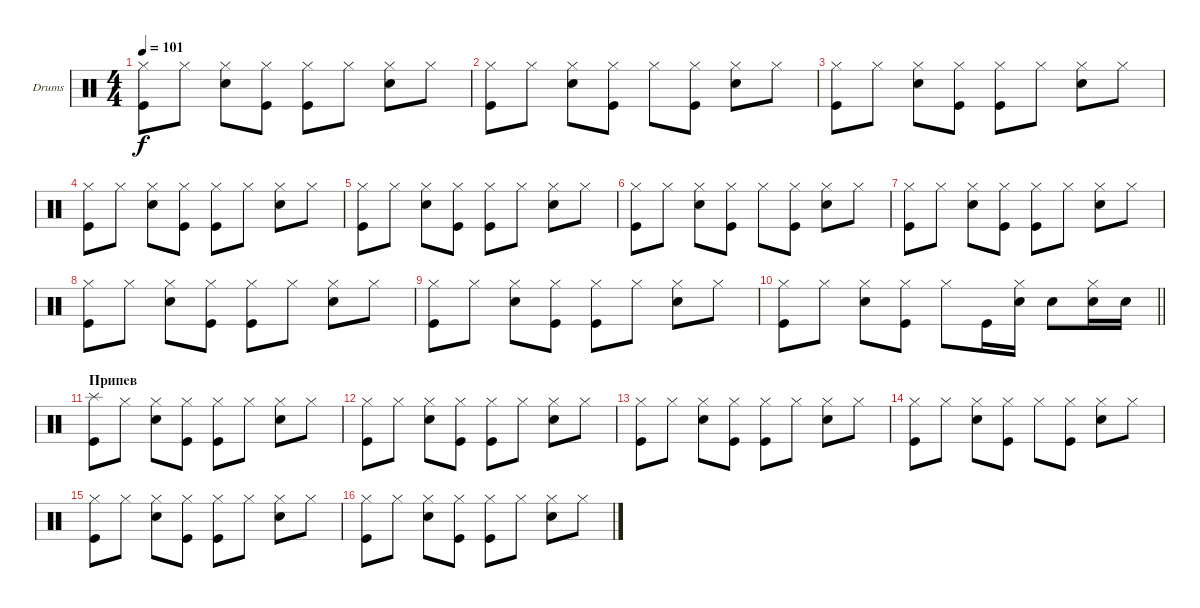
\bracketExtendMode groupsimilarinstruments
\firstSystemTrackNameOrientation horizontal
\otherSystemsTrackNameOrientation horizontal
\track ("Г.Гурьянов (ударные)" "Drums") {instrument percussion}
\staff {score}
\articulation defaults
\ts (4 4)
\tempo 101
\clef neutral
\ks c
("Hi-Hat (closed)" "Kick (hit)").8{dy f} "Hi-Hat (closed)".8 ("Hi-Hat (closed)" "Snare (hit) 2").8 ("Hi-Hat (closed)" "Kick (hit)").8 ("Hi-Hat (closed)" "Kick (hit)").8 "Hi-Hat (closed)".8 ("Hi-Hat (closed)" "Snare (hit) 2").8 "Hi-Hat (closed)".8 |
("Hi-Hat (closed)" "Kick (hit)").8 "Hi-Hat (closed)".8 ("Hi-Hat (closed)" "Snare (hit) 2").8 ("Hi-Hat (closed)" "Kick (hit)").8 "Hi-Hat (closed)".8 ("Hi-Hat (closed)" "Kick (hit)").8 ("Hi-Hat (closed)" "Snare (hit) 2").8 "Hi-Hat (closed)".8 |
("Hi-Hat (closed)" "Kick (hit)").8 "Hi-Hat (closed)".8 ("Hi-Hat (closed)" "Snare (hit) 2").8 ("Hi-Hat (closed)" "Kick (hit)").8 ("Hi-Hat (closed)" "Kick (hit)").8 "Hi-Hat (closed)".8 ("Hi-Hat (closed)" "Snare (hit) 2").8 "Hi-Hat (closed)".8 |
("Hi-Hat (closed)" "Kick (hit)").8 "Hi-Hat (closed)".8 ("Hi-Hat (closed)" "Snare (hit) 2").8 ("Hi-Hat (closed)" "Kick (hit)").8 ("Hi-Hat (closed)" "Kick (hit)").8 "Hi-Hat (closed)".8 ("Hi-Hat (closed)" "Snare (hit) 2").8 "Hi-Hat (closed)".8 |
("Hi-Hat (closed)" "Kick (hit)").8 "Hi-Hat (closed)".8 ("Hi-Hat (closed)" "Snare (hit) 2").8 ("Hi-Hat (closed)" "Kick (hit)").8 ("Hi-Hat (closed)" "Kick (hit)").8 "Hi-Hat (closed)".8 ("Hi-Hat (closed)" "Snare (hit) 2").8 "Hi-Hat (closed)".8 |
("Hi-Hat (closed)" "Kick (hit)").8 "Hi-Hat (closed)".8 ("Hi-Hat (closed)" "Snare (hit) 2").8 ("Hi-Hat (closed)" "Kick (hit)").8 "Hi-Hat (closed)".8 ("Hi-Hat (closed)" "Kick (hit)").8 ("Hi-Hat (closed)" "Snare (hit) 2").8 "Hi-Hat (closed)".8 |
("Hi-Hat (closed)" "Kick (hit)").8 "Hi-Hat (closed)".8 ("Hi-Hat (closed)" "Snare (hit) 2").8 ("Hi-Hat (closed)" "Kick (hit)").8 ("Hi-Hat (closed)" "Kick (hit)").8 "Hi-Hat (closed)".8 ("Hi-Hat (closed)" "Snare (hit) 2").8 "Hi-Hat (closed)".8 |
("Hi-Hat (closed)" "Kick (hit)").8 "Hi-Hat (closed)".8 ("Hi-Hat (closed)" "Snare (hit) 2").8 ("Hi-Hat (closed)" "Kick (hit)").8 ("Hi-Hat (closed)" "Kick (hit)").8 "Hi-Hat (closed)".8 ("Hi-Hat (closed)" "Snare (hit) 2").8 "Hi-Hat (closed)".8 |
("Hi-Hat (closed)" "Kick (hit)").8 "Hi-Hat (closed)".8 ("Hi-Hat (closed)" "Snare (hit) 2").8 ("Hi-Hat (closed)" "Kick (hit)").8 ("Hi-Hat (closed)" "Kick (hit)").8 "Hi-Hat (closed)".8 ("Hi-Hat (closed)" "Snare (hit) 2").8 "Hi-Hat (closed)".8 |
\barLineRight lightlight
("Hi-Hat (closed)" "Kick (hit)").8 "Hi-Hat (closed)".8 ("Hi-Hat (closed)" "Snare (hit) 2").8 ("Hi-Hat (closed)" "Kick (hit)").8 "Hi-Hat (closed)".8 "Kick (hit)".16 ("Hi-Hat (closed)" "Snare (hit) 2").16 "Snare (hit) 2".8 ("Hi-Hat (closed)" "Snare (hit) 2").16 "Snare (hit) 2".16 |
\section ("" "Припев")
("Splash (hit)" "Kick (hit)").8 "Hi-Hat (closed)".8 ("Hi-Hat (closed)" "Snare (hit) 2").8 ("Hi-Hat (closed)" "Kick (hit)").8 ("Hi-Hat (closed)" "Kick (hit)").8 "Hi-Hat (closed)".8 ("Hi-Hat (closed)" "Snare (hit) 2").8 "Hi-Hat (closed)".8 |
("Hi-Hat (closed)" "Kick (hit)").8 "Hi-Hat (closed)".8 ("Hi-Hat (closed)" "Snare (hit) 2").8 ("Hi-Hat (closed)" "Kick (hit)").8 ("Hi-Hat (closed)" "Kick (hit)").8 "Hi-Hat (closed)".8 ("Hi-Hat (closed)" "Snare (hit) 2").8 "Hi-Hat (closed)".8 |
("Hi-Hat (closed)" "Kick (hit)").8 "Hi-Hat (closed)".8 ("Hi-Hat (closed)" "Snare (hit) 2").8 ("Hi-Hat (closed)" "Kick (hit)").8 ("Hi-Hat (closed)" "Kick (hit)").8 "Hi-Hat (closed)".8 ("Hi-Hat (closed)" "Snare (hit) 2").8 "Hi-Hat (closed)".8 |
("Hi-Hat (closed)" "Kick (hit)").8 "Hi-Hat (closed)".8 ("Hi-Hat (closed)" "Snare (hit) 2").8 ("Hi-Hat (closed)" "Kick (hit)").8 "Hi-Hat (closed)".8 ("Hi-Hat (closed)" "Kick (hit)").8 ("Hi-Hat (closed)" "Snare (hit) 2").8 "Hi-Hat (closed)".8 |
("Hi-Hat (closed)" "Kick (hit)").8 "Hi-Hat (closed)".8 ("Hi-Hat (closed)" "Snare (hit) 2").8 ("Hi-Hat (closed)" "Kick (hit)").8 ("Hi-Hat (closed)" "Kick (hit)").8 "Hi-Hat (closed)".8 ("Hi-Hat (closed)" "Snare (hit) 2").8 "Hi-Hat (closed)".8 |
("Hi-Hat (closed)" "Kick (hit)").8 "Hi-Hat (closed)".8 ("Hi-Hat (closed)" "Snare (hit) 2").8 ("Hi-Hat (closed)" "Kick (hit)").8 ("Hi-Hat (closed)" "Kick (hit)").8 "Hi-Hat (closed)".8 ("Hi-Hat (closed)" "Snare (hit) 2").8 "Hi-Hat (closed)".8
